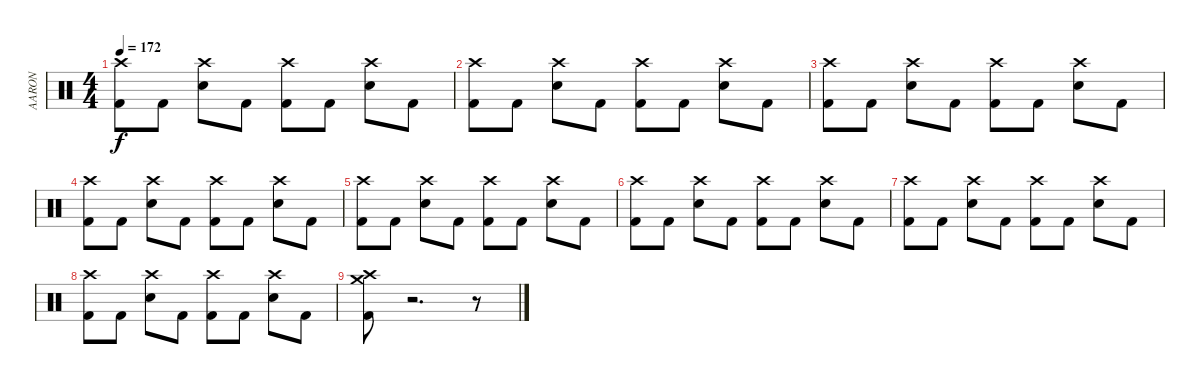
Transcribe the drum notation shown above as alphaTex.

\track ("AARON" "AARON") {instrument percussion}
\staff {score}
\articulation defaults
\ts (4 4)
\tempo 172
\clef neutral
\ks c
("Crash high (hit)" "Kick (hit) 2").8{dy f} "Kick (hit) 2".8 ("Crash high (hit)" "Electric Snare (hit)").8 "Kick (hit) 2".8 ("Crash high (hit)" "Kick (hit) 2").8 "Kick (hit) 2".8 ("Crash high (hit)" "Electric Snare (hit)").8 "Kick (hit) 2".8 |
("Crash high (hit)" "Kick (hit) 2").8 "Kick (hit) 2".8 ("Crash high (hit)" "Electric Snare (hit)").8 "Kick (hit) 2".8 ("Crash high (hit)" "Kick (hit) 2").8 "Kick (hit) 2".8 ("Crash high (hit)" "Electric Snare (hit)").8 "Kick (hit) 2".8 |
("Crash high (hit)" "Kick (hit) 2").8 "Kick (hit) 2".8 ("Crash high (hit)" "Electric Snare (hit)").8 "Kick (hit) 2".8 ("Crash high (hit)" "Kick (hit) 2").8 "Kick (hit) 2".8 ("Crash high (hit)" "Electric Snare (hit)").8 "Kick (hit) 2".8 |
("Crash high (hit)" "Kick (hit) 2").8 "Kick (hit) 2".8 ("Crash high (hit)" "Electric Snare (hit)").8 "Kick (hit) 2".8 ("Crash high (hit)" "Kick (hit) 2").8 "Kick (hit) 2".8 ("Crash high (hit)" "Electric Snare (hit)").8 "Kick (hit) 2".8 |
("Crash high (hit)" "Kick (hit) 2").8 "Kick (hit) 2".8 ("Crash high (hit)" "Electric Snare (hit)").8 "Kick (hit) 2".8 ("Crash high (hit)" "Kick (hit) 2").8 "Kick (hit) 2".8 ("Crash high (hit)" "Electric Snare (hit)").8 "Kick (hit) 2".8 |
("Crash high (hit)" "Kick (hit) 2").8 "Kick (hit) 2".8 ("Crash high (hit)" "Electric Snare (hit)").8 "Kick (hit) 2".8 ("Crash high (hit)" "Kick (hit) 2").8 "Kick (hit) 2".8 ("Crash high (hit)" "Electric Snare (hit)").8 "Kick (hit) 2".8 |
("Crash high (hit)" "Kick (hit) 2").8 "Kick (hit) 2".8 ("Crash high (hit)" "Electric Snare (hit)").8 "Kick (hit) 2".8 ("Crash high (hit)" "Kick (hit) 2").8 "Kick (hit) 2".8 ("Crash high (hit)" "Electric Snare (hit)").8 "Kick (hit) 2".8 |
("Crash high (hit)" "Kick (hit) 2").8 "Kick (hit) 2".8 ("Crash high (hit)" "Electric Snare (hit)").8 "Kick (hit) 2".8 ("Crash high (hit)" "Kick (hit) 2").8 "Kick (hit) 2".8 ("Crash high (hit)" "Electric Snare (hit)").8 "Kick (hit) 2".8 |
("Crash high (hit)" "Crash medium (hit)" "Kick (hit) 2").8 r.2{d} r.8
